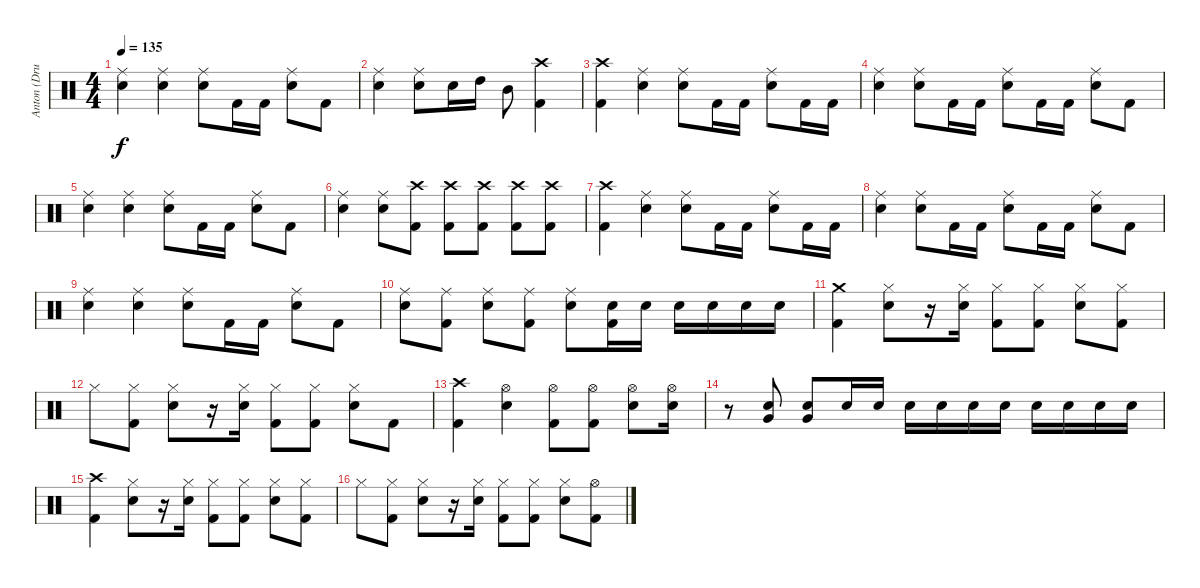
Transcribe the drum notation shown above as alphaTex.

\track ("Anton (Drum)" "Anton (Dru") {instrument percussion}
\staff {score}
\articulation defaults
\ts (4 4)
\tempo 135
\clef neutral
\ks c
("Snare (hit) 2" "Ride (middle)").4{dy f} ("Snare (hit) 2" "Ride (middle)").4 ("Snare (hit) 2" "Ride (middle)").8 "Kick (hit) 2".16 "Kick (hit) 2".16 ("Snare (hit) 2" "Ride (middle)").8 "Kick (hit) 2".8 |
("Snare (hit) 2" "Ride (middle)").4 ("Snare (hit) 2" "Ride (middle)").8 "Snare (hit) 2".16 "High Tom (hit)".16 "Mid Tom (hit)".8 ("Kick (hit) 2" "Crash high (hit)").4 |
("Kick (hit) 2" "Crash high (hit)").4 ("Snare (hit) 2" "Ride (middle)").4 ("Snare (hit) 2" "Ride (middle)").8 "Kick (hit) 2".16 "Kick (hit) 2".16 ("Snare (hit) 2" "Ride (middle)").8 "Kick (hit) 2".16 "Kick (hit) 2".16 |
("Snare (hit) 2" "Ride (middle)").4 ("Snare (hit) 2" "Ride (middle)").8 "Kick (hit) 2".16 "Kick (hit) 2".16 ("Snare (hit) 2" "Ride (middle)").8 "Kick (hit) 2".16 "Kick (hit) 2".16 ("Snare (hit) 2" "Ride (middle)").8 "Kick (hit) 2".8 |
("Snare (hit) 2" "Ride (middle)").4 ("Snare (hit) 2" "Ride (middle)").4 ("Snare (hit) 2" "Ride (middle)").8 "Kick (hit) 2".16 "Kick (hit) 2".16 ("Snare (hit) 2" "Ride (middle)").8 "Kick (hit) 2".8 |
("Snare (hit) 2" "Ride (middle)").4 ("Snare (hit) 2" "Ride (middle)").8 ("Kick (hit) 2" "Crash high (hit)").8 ("Kick (hit) 2" "Crash high (hit)").8 ("Kick (hit) 2" "Crash high (hit)").8 ("Kick (hit) 2" "Crash high (hit)").8 ("Kick (hit) 2" "Crash high (hit)").8 |
("Kick (hit) 2" "Crash high (hit)").4 ("Snare (hit) 2" "Ride (middle)").4 ("Snare (hit) 2" "Ride (middle)").8 "Kick (hit) 2".16 "Kick (hit) 2".16 ("Snare (hit) 2" "Ride (middle)").8 "Kick (hit) 2".16 "Kick (hit) 2".16 |
("Snare (hit) 2" "Ride (middle)").4 ("Snare (hit) 2" "Ride (middle)").8 "Kick (hit) 2".16 "Kick (hit) 2".16 ("Snare (hit) 2" "Ride (middle)").8 "Kick (hit) 2".16 "Kick (hit) 2".16 ("Snare (hit) 2" "Ride (middle)").8 "Kick (hit) 2".8 |
("Snare (hit) 2" "Ride (middle)").4 ("Snare (hit) 2" "Ride (middle)").4 ("Snare (hit) 2" "Ride (middle)").8 "Kick (hit) 2".16 "Kick (hit) 2".16 ("Snare (hit) 2" "Ride (middle)").8 "Kick (hit) 2".8 |
("Snare (hit) 2" "Ride (middle)").8 ("Kick (hit) 2" "Ride (middle)").8 ("Snare (hit) 2" "Ride (middle)").8 ("Kick (hit) 2" "Ride (middle)").8 ("Snare (hit) 2" "Ride (middle)").8 ("Kick (hit) 2" "Snare (hit) 2").16 "Snare (hit) 2".16 "Snare (hit) 2".16 "Snare (hit) 2".16 "Snare (hit) 2".16 "Snare (hit) 2".16 |
("Kick (hit) 2" "Crash medium (hit)").4 ("Snare (hit) 2" "Hi-Hat (closed)").8 r.16 ("Snare (hit) 2" "Hi-Hat (closed)").16 ("Kick (hit) 2" "Hi-Hat (closed)").8 ("Kick (hit) 2" "Hi-Hat (closed)").8 ("Snare (hit) 2" "Hi-Hat (closed)").8 ("Kick (hit) 2" "Hi-Hat (closed)").8 |
"Hi-Hat (closed)".8 ("Kick (hit) 2" "Hi-Hat (closed)").8 ("Snare (hit) 2" "Hi-Hat (closed)").8 r.16 ("Snare (hit) 2" "Hi-Hat (closed)").16 ("Kick (hit) 2" "Hi-Hat (closed)").8 ("Kick (hit) 2" "Hi-Hat (closed)").8 ("Snare (hit) 2" "Hi-Hat (closed)").8 "Kick (hit) 2".8 |
("Kick (hit) 2" "Crash high (hit)").4 ("Snare (hit) 2" "Hi-Hat (open)").4 ("Kick (hit) 2" "Hi-Hat (open)").8 ("Kick (hit) 2" "Hi-Hat (open)").8 ("Snare (hit) 2" "Hi-Hat (open)").8 ("Snare (hit) 2" "Hi-Hat (open)").16 |
r.8 ("Snare (hit) 2" "Very Low Tom (hit)").8 ("Snare (hit) 2" "Very Low Tom (hit)").8 "Snare (hit) 2".16 "Snare (hit) 2".16 "Snare (hit) 2".16 "Snare (hit) 2".16 "Snare (hit) 2".16 "Snare (hit) 2".16 "Snare (hit) 2".16 "Snare (hit) 2".16 "Snare (hit) 2".16 "Snare (hit) 2".16 |
("Crash high (hit)" "Kick (hit) 2").4 ("Snare (hit) 2" "Hi-Hat (closed)").8 r.16 ("Snare (hit) 2" "Hi-Hat (closed)").16 ("Kick (hit) 2" "Hi-Hat (closed)").8 ("Kick (hit) 2" "Hi-Hat (closed)").8 ("Snare (hit) 2" "Hi-Hat (closed)").8 ("Kick (hit) 2" "Hi-Hat (closed)").8 |
"Hi-Hat (closed)".8 ("Kick (hit) 2" "Hi-Hat (closed)").8 ("Snare (hit) 2" "Hi-Hat (closed)").8 r.16 ("Snare (hit) 2" "Hi-Hat (closed)").16 ("Kick (hit) 2" "Hi-Hat (closed)").8 ("Kick (hit) 2" "Hi-Hat (closed)").8 ("Snare (hit) 2" "Hi-Hat (closed)").8 ("Kick (hit) 2" "Hi-Hat (open)").8
